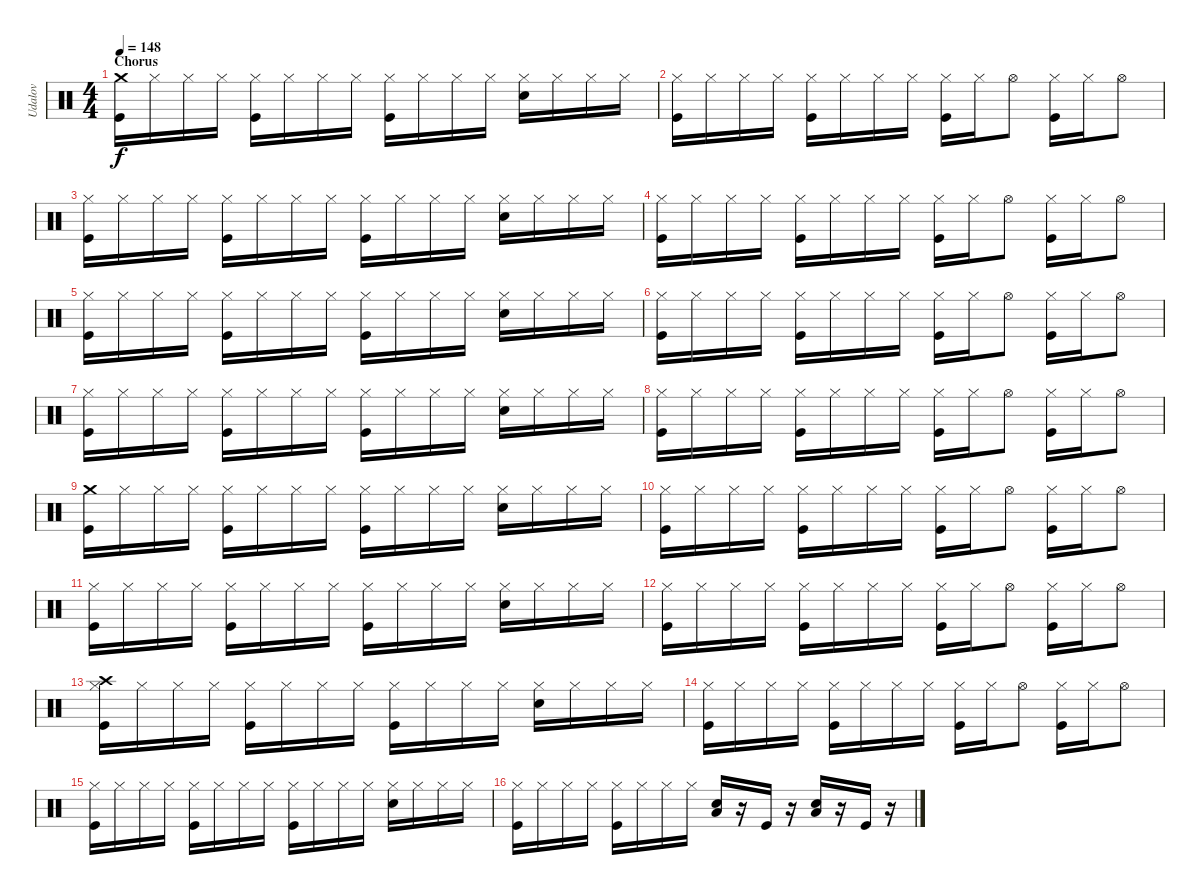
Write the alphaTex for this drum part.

\track ("Udalov" "Udalov") {instrument percussion}
\staff {score}
\articulation defaults
\ts (4 4)
\section ("" "Chorus")
\tempo 148
\clef neutral
\ks c
("Kick (hit)" "Crash medium (hit)").16{dy f} "Hi-Hat (closed)".16 "Hi-Hat (closed)".16 "Hi-Hat (closed)".16 ("Kick (hit)" "Hi-Hat (closed)").16 "Hi-Hat (closed)".16 "Hi-Hat (closed)".16 "Hi-Hat (closed)".16 ("Kick (hit)" "Hi-Hat (closed)").16 "Hi-Hat (closed)".16 "Hi-Hat (closed)".16 "Hi-Hat (closed)".16 ("Electric Snare (hit)" "Hi-Hat (closed)").16 "Hi-Hat (closed)".16 "Hi-Hat (closed)".16 "Hi-Hat (closed)".16 |
("Kick (hit)" "Hi-Hat (closed)").16 "Hi-Hat (closed)".16 "Hi-Hat (closed)".16 "Hi-Hat (closed)".16 ("Kick (hit)" "Hi-Hat (closed)").16 "Hi-Hat (closed)".16 "Hi-Hat (closed)".16 "Hi-Hat (closed)".16 ("Kick (hit)" "Hi-Hat (closed)").16 "Hi-Hat (closed)".16 "Hi-Hat (open)".8 ("Kick (hit)" "Hi-Hat (closed)").16 "Hi-Hat (closed)".16 "Hi-Hat (open)".8 |
("Kick (hit)" "Hi-Hat (closed)").16 "Hi-Hat (closed)".16 "Hi-Hat (closed)".16 "Hi-Hat (closed)".16 ("Kick (hit)" "Hi-Hat (closed)").16 "Hi-Hat (closed)".16 "Hi-Hat (closed)".16 "Hi-Hat (closed)".16 ("Kick (hit)" "Hi-Hat (closed)").16 "Hi-Hat (closed)".16 "Hi-Hat (closed)".16 "Hi-Hat (closed)".16 ("Electric Snare (hit)" "Hi-Hat (closed)").16 "Hi-Hat (closed)".16 "Hi-Hat (closed)".16 "Hi-Hat (closed)".16 |
("Kick (hit)" "Hi-Hat (closed)").16 "Hi-Hat (closed)".16 "Hi-Hat (closed)".16 "Hi-Hat (closed)".16 ("Kick (hit)" "Hi-Hat (closed)").16 "Hi-Hat (closed)".16 "Hi-Hat (closed)".16 "Hi-Hat (closed)".16 ("Kick (hit)" "Hi-Hat (closed)").16 "Hi-Hat (closed)".16 "Hi-Hat (open)".8 ("Kick (hit)" "Hi-Hat (closed)").16 "Hi-Hat (closed)".16 "Hi-Hat (open)".8 |
("Kick (hit)" "Hi-Hat (closed)").16 "Hi-Hat (closed)".16 "Hi-Hat (closed)".16 "Hi-Hat (closed)".16 ("Kick (hit)" "Hi-Hat (closed)").16 "Hi-Hat (closed)".16 "Hi-Hat (closed)".16 "Hi-Hat (closed)".16 ("Kick (hit)" "Hi-Hat (closed)").16 "Hi-Hat (closed)".16 "Hi-Hat (closed)".16 "Hi-Hat (closed)".16 ("Electric Snare (hit)" "Hi-Hat (closed)").16 "Hi-Hat (closed)".16 "Hi-Hat (closed)".16 "Hi-Hat (closed)".16 |
("Kick (hit)" "Hi-Hat (closed)").16 "Hi-Hat (closed)".16 "Hi-Hat (closed)".16 "Hi-Hat (closed)".16 ("Kick (hit)" "Hi-Hat (closed)").16 "Hi-Hat (closed)".16 "Hi-Hat (closed)".16 "Hi-Hat (closed)".16 ("Kick (hit)" "Hi-Hat (closed)").16 "Hi-Hat (closed)".16 "Hi-Hat (open)".8 ("Kick (hit)" "Hi-Hat (closed)").16 "Hi-Hat (closed)".16 "Hi-Hat (open)".8 |
("Kick (hit)" "Hi-Hat (closed)").16 "Hi-Hat (closed)".16 "Hi-Hat (closed)".16 "Hi-Hat (closed)".16 ("Kick (hit)" "Hi-Hat (closed)").16 "Hi-Hat (closed)".16 "Hi-Hat (closed)".16 "Hi-Hat (closed)".16 ("Kick (hit)" "Hi-Hat (closed)").16 "Hi-Hat (closed)".16 "Hi-Hat (closed)".16 "Hi-Hat (closed)".16 ("Electric Snare (hit)" "Hi-Hat (closed)").16 "Hi-Hat (closed)".16 "Hi-Hat (closed)".16 "Hi-Hat (closed)".16 |
("Kick (hit)" "Hi-Hat (closed)").16 "Hi-Hat (closed)".16 "Hi-Hat (closed)".16 "Hi-Hat (closed)".16 ("Kick (hit)" "Hi-Hat (closed)").16 "Hi-Hat (closed)".16 "Hi-Hat (closed)".16 "Hi-Hat (closed)".16 ("Kick (hit)" "Hi-Hat (closed)").16 "Hi-Hat (closed)".16 "Hi-Hat (open)".8 ("Kick (hit)" "Hi-Hat (closed)").16 "Hi-Hat (closed)".16 "Hi-Hat (open)".8 |
("Kick (hit)" "Crash medium (hit)").16 "Hi-Hat (closed)".16 "Hi-Hat (closed)".16 "Hi-Hat (closed)".16 ("Kick (hit)" "Hi-Hat (closed)").16 "Hi-Hat (closed)".16 "Hi-Hat (closed)".16 "Hi-Hat (closed)".16 ("Kick (hit)" "Hi-Hat (closed)").16 "Hi-Hat (closed)".16 "Hi-Hat (closed)".16 "Hi-Hat (closed)".16 ("Electric Snare (hit)" "Hi-Hat (closed)").16 "Hi-Hat (closed)".16 "Hi-Hat (closed)".16 "Hi-Hat (closed)".16 |
("Kick (hit)" "Hi-Hat (closed)").16 "Hi-Hat (closed)".16 "Hi-Hat (closed)".16 "Hi-Hat (closed)".16 ("Kick (hit)" "Hi-Hat (closed)").16 "Hi-Hat (closed)".16 "Hi-Hat (closed)".16 "Hi-Hat (closed)".16 ("Kick (hit)" "Hi-Hat (closed)").16 "Hi-Hat (closed)".16 "Hi-Hat (open)".8 ("Kick (hit)" "Hi-Hat (closed)").16 "Hi-Hat (closed)".16 "Hi-Hat (open)".8 |
("Kick (hit)" "Hi-Hat (closed)").16 "Hi-Hat (closed)".16 "Hi-Hat (closed)".16 "Hi-Hat (closed)".16 ("Kick (hit)" "Hi-Hat (closed)").16 "Hi-Hat (closed)".16 "Hi-Hat (closed)".16 "Hi-Hat (closed)".16 ("Kick (hit)" "Hi-Hat (closed)").16 "Hi-Hat (closed)".16 "Hi-Hat (closed)".16 "Hi-Hat (closed)".16 ("Electric Snare (hit)" "Hi-Hat (closed)").16 "Hi-Hat (closed)".16 "Hi-Hat (closed)".16 "Hi-Hat (closed)".16 |
("Kick (hit)" "Hi-Hat (closed)").16 "Hi-Hat (closed)".16 "Hi-Hat (closed)".16 "Hi-Hat (closed)".16 ("Kick (hit)" "Hi-Hat (closed)").16 "Hi-Hat (closed)".16 "Hi-Hat (closed)".16 "Hi-Hat (closed)".16 ("Kick (hit)" "Hi-Hat (closed)").16 "Hi-Hat (closed)".16 "Hi-Hat (open)".8 ("Kick (hit)" "Hi-Hat (closed)").16 "Hi-Hat (closed)".16 "Hi-Hat (open)".8 |
("Kick (hit)" "Crash high (hit)" "Hi-Hat (closed)").16 "Hi-Hat (closed)".16 "Hi-Hat (closed)".16 "Hi-Hat (closed)".16 ("Kick (hit)" "Hi-Hat (closed)").16 "Hi-Hat (closed)".16 "Hi-Hat (closed)".16 "Hi-Hat (closed)".16 ("Kick (hit)" "Hi-Hat (closed)").16 "Hi-Hat (closed)".16 "Hi-Hat (closed)".16 "Hi-Hat (closed)".16 ("Electric Snare (hit)" "Hi-Hat (closed)").16 "Hi-Hat (closed)".16 "Hi-Hat (closed)".16 "Hi-Hat (closed)".16 |
("Kick (hit)" "Hi-Hat (closed)").16 "Hi-Hat (closed)".16 "Hi-Hat (closed)".16 "Hi-Hat (closed)".16 ("Kick (hit)" "Hi-Hat (closed)").16 "Hi-Hat (closed)".16 "Hi-Hat (closed)".16 "Hi-Hat (closed)".16 ("Kick (hit)" "Hi-Hat (closed)").16 "Hi-Hat (closed)".16 "Hi-Hat (open)".8 ("Kick (hit)" "Hi-Hat (closed)").16 "Hi-Hat (closed)".16 "Hi-Hat (open)".8 |
("Kick (hit)" "Hi-Hat (closed)").16 "Hi-Hat (closed)".16 "Hi-Hat (closed)".16 "Hi-Hat (closed)".16 ("Kick (hit)" "Hi-Hat (closed)").16 "Hi-Hat (closed)".16 "Hi-Hat (closed)".16 "Hi-Hat (closed)".16 ("Kick (hit)" "Hi-Hat (closed)").16 "Hi-Hat (closed)".16 "Hi-Hat (closed)".16 "Hi-Hat (closed)".16 ("Electric Snare (hit)" "Hi-Hat (closed)").16 "Hi-Hat (closed)".16 "Hi-Hat (closed)".16 "Hi-Hat (closed)".16 |
("Kick (hit)" "Hi-Hat (closed)").16 "Hi-Hat (closed)".16 "Hi-Hat (closed)".16 "Hi-Hat (closed)".16 ("Kick (hit)" "Hi-Hat (closed)").16 "Hi-Hat (closed)".16 "Hi-Hat (closed)".16 "Hi-Hat (closed)".16 ("Low Tom (hit)" "Electric Snare (hit)").16 r.16 "Kick (hit)".16 r.16 ("Low Tom (hit)" "Electric Snare (hit)").16 r.16 "Kick (hit)".16 r.16
